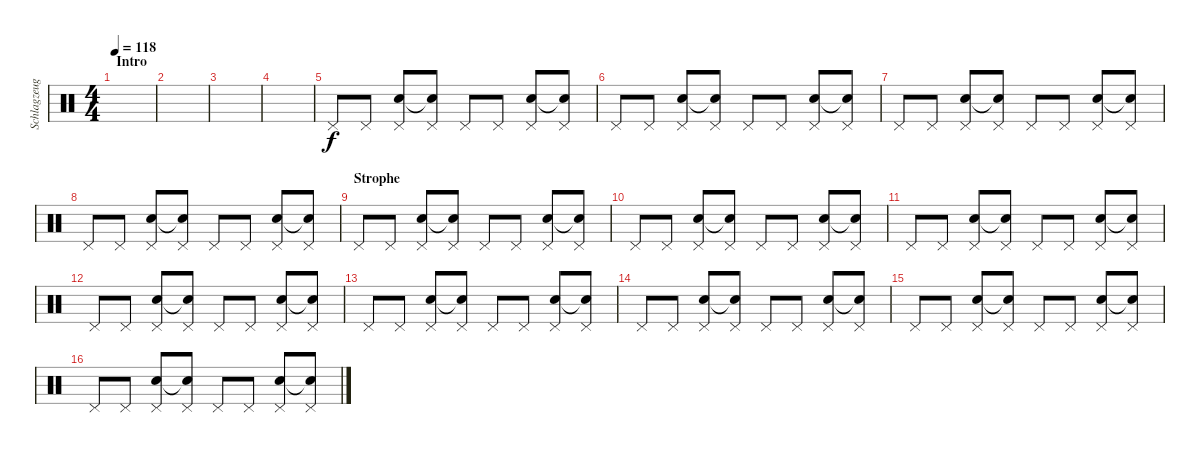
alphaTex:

\track ("Schlagzeug" "Schlagzeug") {instrument percussion}
\staff {score}
\articulation defaults
\ts (4 4)
\section ("" "Intro")
\tempo 118
\clef neutral
\ks c
|
|
|
|
"Pedal Hi-Hat (hit)".8 "Pedal Hi-Hat (hit)".8 ("Pedal Hi-Hat (hit)" "Snare (hit) 2").8 ("Pedal Hi-Hat (hit)" "Snare (hit) 2"{t}).8 "Pedal Hi-Hat (hit)".8 "Pedal Hi-Hat (hit)".8 ("Pedal Hi-Hat (hit)" "Snare (hit) 2").8 ("Pedal Hi-Hat (hit)" "Snare (hit)"{t}).8 |
"Pedal Hi-Hat (hit)".8 "Pedal Hi-Hat (hit)".8 ("Pedal Hi-Hat (hit)" "Snare (hit) 2").8 ("Pedal Hi-Hat (hit)" "Snare (hit) 2"{t}).8 "Pedal Hi-Hat (hit)".8 "Pedal Hi-Hat (hit)".8 ("Pedal Hi-Hat (hit)" "Snare (hit) 2").8 ("Pedal Hi-Hat (hit)" "Snare (hit)"{t}).8 |
"Pedal Hi-Hat (hit)".8 "Pedal Hi-Hat (hit)".8 ("Pedal Hi-Hat (hit)" "Snare (hit) 2").8 ("Pedal Hi-Hat (hit)" "Snare (hit) 2"{t}).8 "Pedal Hi-Hat (hit)".8 "Pedal Hi-Hat (hit)".8 ("Pedal Hi-Hat (hit)" "Snare (hit) 2").8 ("Pedal Hi-Hat (hit)" "Snare (hit) 2"{t}).8 |
"Pedal Hi-Hat (hit)".8 "Pedal Hi-Hat (hit)".8 ("Pedal Hi-Hat (hit)" "Snare (hit) 2").8 ("Pedal Hi-Hat (hit)" "Snare (hit) 2"{t}).8 "Pedal Hi-Hat (hit)".8 "Pedal Hi-Hat (hit)".8 ("Pedal Hi-Hat (hit)" "Snare (hit) 2").8 ("Pedal Hi-Hat (hit)" "Snare (hit)"{t}).8 |
\section ("" "Strophe")
"Pedal Hi-Hat (hit)".8 "Pedal Hi-Hat (hit)".8 ("Pedal Hi-Hat (hit)" "Snare (hit) 2").8 ("Pedal Hi-Hat (hit)" "Snare (hit) 2"{t}).8 "Pedal Hi-Hat (hit)".8 "Pedal Hi-Hat (hit)".8 ("Pedal Hi-Hat (hit)" "Snare (hit) 2").8 ("Pedal Hi-Hat (hit)" "Snare (hit)"{t}).8 |
"Pedal Hi-Hat (hit)".8 "Pedal Hi-Hat (hit)".8 ("Pedal Hi-Hat (hit)" "Snare (hit) 2").8 ("Pedal Hi-Hat (hit)" "Snare (hit) 2"{t}).8 "Pedal Hi-Hat (hit)".8 "Pedal Hi-Hat (hit)".8 ("Pedal Hi-Hat (hit)" "Snare (hit) 2").8 ("Pedal Hi-Hat (hit)" "Snare (hit)"{t}).8 |
"Pedal Hi-Hat (hit)".8 "Pedal Hi-Hat (hit)".8 ("Pedal Hi-Hat (hit)" "Snare (hit) 2").8 ("Pedal Hi-Hat (hit)" "Snare (hit) 2"{t}).8 "Pedal Hi-Hat (hit)".8 "Pedal Hi-Hat (hit)".8 ("Pedal Hi-Hat (hit)" "Snare (hit) 2").8 ("Pedal Hi-Hat (hit)" "Snare (hit)"{t}).8 |
"Pedal Hi-Hat (hit)".8 "Pedal Hi-Hat (hit)".8 ("Pedal Hi-Hat (hit)" "Snare (hit) 2").8 ("Pedal Hi-Hat (hit)" "Snare (hit) 2"{t}).8 "Pedal Hi-Hat (hit)".8 "Pedal Hi-Hat (hit)".8 ("Pedal Hi-Hat (hit)" "Snare (hit) 2").8 ("Pedal Hi-Hat (hit)" "Snare (hit)"{t}).8 |
"Pedal Hi-Hat (hit)".8 "Pedal Hi-Hat (hit)".8 ("Pedal Hi-Hat (hit)" "Snare (hit) 2").8 ("Pedal Hi-Hat (hit)" "Snare (hit) 2"{t}).8 "Pedal Hi-Hat (hit)".8 "Pedal Hi-Hat (hit)".8 ("Pedal Hi-Hat (hit)" "Snare (hit) 2").8 ("Pedal Hi-Hat (hit)" "Snare (hit)"{t}).8 |
"Pedal Hi-Hat (hit)".8 "Pedal Hi-Hat (hit)".8 ("Pedal Hi-Hat (hit)" "Snare (hit) 2").8 ("Pedal Hi-Hat (hit)" "Snare (hit) 2"{t}).8 "Pedal Hi-Hat (hit)".8 "Pedal Hi-Hat (hit)".8 ("Pedal Hi-Hat (hit)" "Snare (hit) 2").8 ("Pedal Hi-Hat (hit)" "Snare (hit)"{t}).8 |
"Pedal Hi-Hat (hit)".8 "Pedal Hi-Hat (hit)".8 ("Pedal Hi-Hat (hit)" "Snare (hit) 2").8 ("Pedal Hi-Hat (hit)" "Snare (hit) 2"{t}).8 "Pedal Hi-Hat (hit)".8 "Pedal Hi-Hat (hit)".8 ("Pedal Hi-Hat (hit)" "Snare (hit) 2").8 ("Pedal Hi-Hat (hit)" "Snare (hit)"{t}).8 |
"Pedal Hi-Hat (hit)".8 "Pedal Hi-Hat (hit)".8 ("Pedal Hi-Hat (hit)" "Snare (hit) 2").8 ("Pedal Hi-Hat (hit)" "Snare (hit) 2"{t}).8 "Pedal Hi-Hat (hit)".8 "Pedal Hi-Hat (hit)".8 ("Pedal Hi-Hat (hit)" "Snare (hit) 2").8 ("Pedal Hi-Hat (hit)" "Snare (hit)"{t}).8
